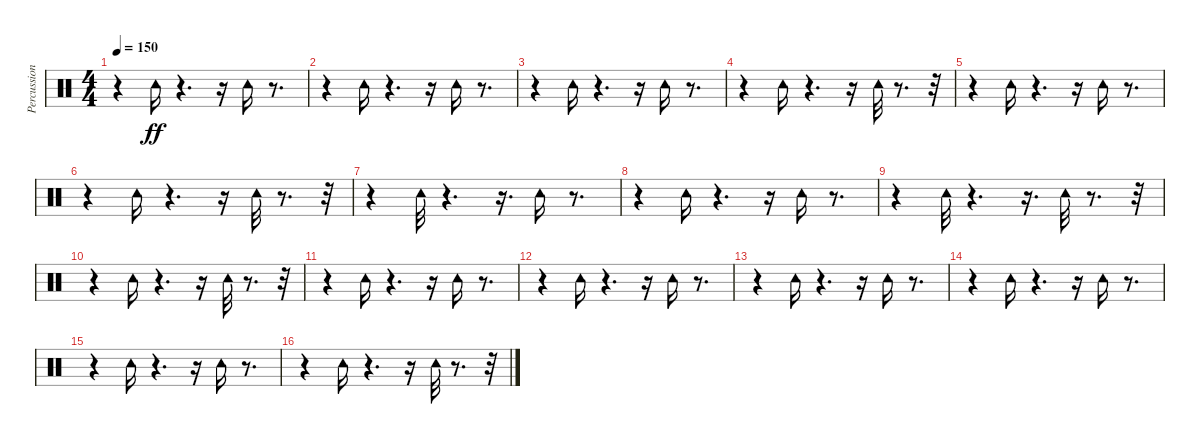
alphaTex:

\track ("Percussion" "Percussion") {instrument percussion}
\staff {score}
\articulation defaults
\ts (4 4)
\tempo 150
\clef neutral
\ks c
r.4{dy ff} "Tambourine (hit)".16 r.4{d} r.16 "Tambourine (hit)".16 r.8{d} |
r.4 "Tambourine (hit)".16 r.4{d} r.16 "Tambourine (hit)".16 r.8{d} |
r.4 "Tambourine (hit)".16 r.4{d} r.16 "Tambourine (hit)".16 r.8{d} |
r.4 "Tambourine (hit)".16 r.4{d} r.16 "Tambourine (hit)".32 r.8{d} r.32 |
r.4 "Tambourine (hit)".16 r.4{d} r.16 "Tambourine (hit)".16 r.8{d} |
r.4 "Tambourine (hit)".16 r.4{d} r.16 "Tambourine (hit)".32 r.8{d} r.32 |
r.4 "Tambourine (hit)".32 r.4{d} r.16{d} "Tambourine (hit)".16 r.8{d} |
r.4 "Tambourine (hit)".16 r.4{d} r.16 "Tambourine (hit)".16 r.8{d} |
r.4 "Tambourine (hit)".32 r.4{d} r.16{d} "Tambourine (hit)".32 r.8{d} r.32 |
r.4 "Tambourine (hit)".16 r.4{d} r.16 "Tambourine (hit)".32 r.8{d} r.32 |
r.4 "Tambourine (hit)".16 r.4{d} r.16 "Tambourine (hit)".16 r.8{d} |
r.4 "Tambourine (hit)".16 r.4{d} r.16 "Tambourine (hit)".16 r.8{d} |
r.4 "Tambourine (hit)".16 r.4{d} r.16 "Tambourine (hit)".16 r.8{d} |
r.4 "Tambourine (hit)".16 r.4{d} r.16 "Tambourine (hit)".16 r.8{d} |
r.4 "Tambourine (hit)".16 r.4{d} r.16 "Tambourine (hit)".16 r.8{d} |
r.4 "Tambourine (hit)".16 r.4{d} r.16 "Tambourine (hit)".32 r.8{d} r.32
